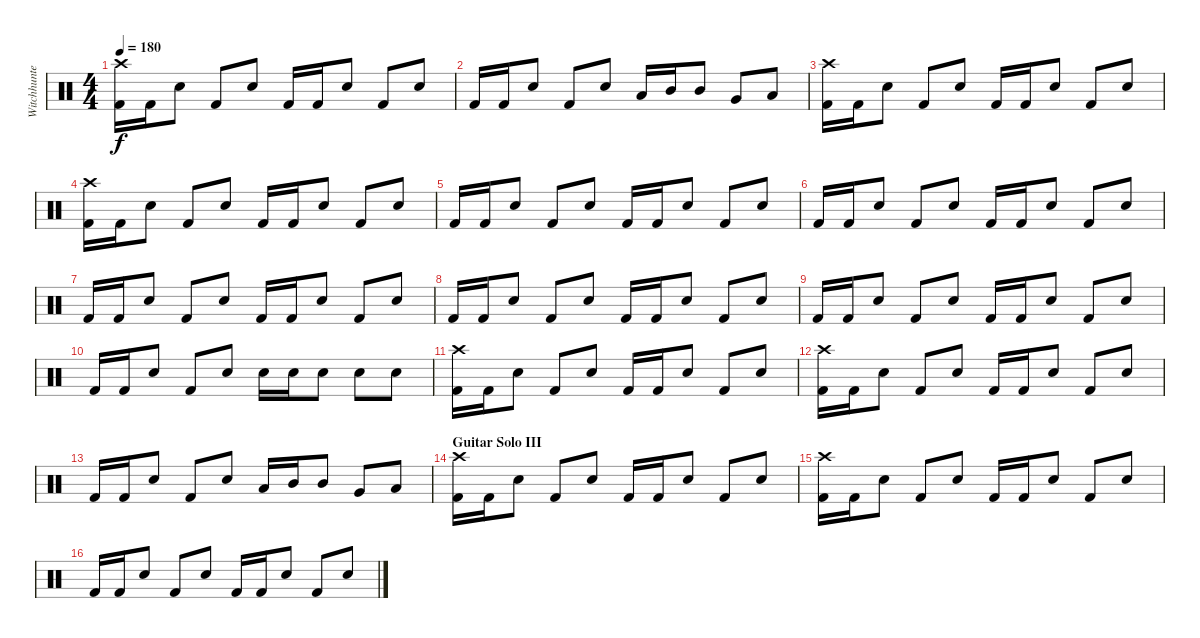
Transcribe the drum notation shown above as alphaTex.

\track ("Witchhunter (Drums)" "Witchhunte") {instrument percussion}
\staff {score}
\articulation defaults
\ts (4 4)
\tempo 180
\clef neutral
\ks c
("Crash high (hit)" "Kick (hit) 2").16{dy f} "Kick (hit) 2".16 "Snare (hit) 2".8 "Kick (hit) 2".8 "Snare (hit) 2".8 "Kick (hit) 2".16 "Kick (hit) 2".16 "Snare (hit) 2".8 "Kick (hit) 2".8 "Snare (hit) 2".8 |
"Kick (hit) 2".16 "Kick (hit) 2".16 "Snare (hit) 2".8 "Kick (hit) 2".8 "Snare (hit) 2".8 "Low Tom (hit)".16 "Mid Tom (hit)".16 "Mid Tom (hit)".8 "Very Low Tom (hit)".8 "Low Tom (hit)".8 |
("Crash high (hit)" "Kick (hit) 2").16 "Kick (hit) 2".16 "Snare (hit) 2".8 "Kick (hit) 2".8 "Snare (hit) 2".8 "Kick (hit) 2".16 "Kick (hit) 2".16 "Snare (hit) 2".8 "Kick (hit) 2".8 "Snare (hit) 2".8 |
("Crash high (hit)" "Kick (hit) 2").16 "Kick (hit) 2".16 "Snare (hit) 2".8 "Kick (hit) 2".8 "Snare (hit) 2".8 "Kick (hit) 2".16 "Kick (hit) 2".16 "Snare (hit) 2".8 "Kick (hit) 2".8 "Snare (hit) 2".8 |
"Kick (hit) 2".16 "Kick (hit) 2".16 "Snare (hit) 2".8 "Kick (hit) 2".8 "Snare (hit) 2".8 "Kick (hit) 2".16 "Kick (hit) 2".16 "Snare (hit) 2".8 "Kick (hit) 2".8 "Snare (hit) 2".8 |
"Kick (hit) 2".16 "Kick (hit) 2".16 "Snare (hit) 2".8 "Kick (hit) 2".8 "Snare (hit) 2".8 "Kick (hit) 2".16 "Kick (hit) 2".16 "Snare (hit) 2".8 "Kick (hit) 2".8 "Snare (hit) 2".8 |
"Kick (hit) 2".16 "Kick (hit) 2".16 "Snare (hit) 2".8 "Kick (hit) 2".8 "Snare (hit) 2".8 "Kick (hit) 2".16 "Kick (hit) 2".16 "Snare (hit) 2".8 "Kick (hit) 2".8 "Snare (hit) 2".8 |
"Kick (hit) 2".16 "Kick (hit) 2".16 "Snare (hit) 2".8 "Kick (hit) 2".8 "Snare (hit) 2".8 "Kick (hit) 2".16 "Kick (hit) 2".16 "Snare (hit) 2".8 "Kick (hit) 2".8 "Snare (hit) 2".8 |
"Kick (hit) 2".16 "Kick (hit) 2".16 "Snare (hit) 2".8 "Kick (hit) 2".8 "Snare (hit) 2".8 "Kick (hit) 2".16 "Kick (hit) 2".16 "Snare (hit) 2".8 "Kick (hit) 2".8 "Snare (hit) 2".8 |
"Kick (hit) 2".16 "Kick (hit) 2".16 "Snare (hit) 2".8 "Kick (hit) 2".8 "Snare (hit) 2".8 "Snare (hit) 2".16 "Snare (hit) 2".16 "Snare (hit) 2".8 "Snare (hit) 2".8 "Snare (hit) 2".8 |
("Crash high (hit)" "Kick (hit) 2").16 "Kick (hit) 2".16 "Snare (hit) 2".8 "Kick (hit) 2".8 "Snare (hit) 2".8 "Kick (hit) 2".16 "Kick (hit) 2".16 "Snare (hit) 2".8 "Kick (hit) 2".8 "Snare (hit) 2".8 |
("Crash high (hit)" "Kick (hit) 2").16 "Kick (hit) 2".16 "Snare (hit) 2".8 "Kick (hit) 2".8 "Snare (hit) 2".8 "Kick (hit) 2".16 "Kick (hit) 2".16 "Snare (hit) 2".8 "Kick (hit) 2".8 "Snare (hit) 2".8 |
"Kick (hit) 2".16 "Kick (hit) 2".16 "Snare (hit) 2".8 "Kick (hit) 2".8 "Snare (hit) 2".8 "Low Tom (hit)".16 "Mid Tom (hit)".16 "Mid Tom (hit)".8 "Very Low Tom (hit)".8 "Low Tom (hit)".8 |
\section ("" "Guitar Solo III")
("Crash high (hit)" "Kick (hit) 2").16 "Kick (hit) 2".16 "Snare (hit) 2".8 "Kick (hit) 2".8 "Snare (hit) 2".8 "Kick (hit) 2".16 "Kick (hit) 2".16 "Snare (hit) 2".8 "Kick (hit) 2".8 "Snare (hit) 2".8 |
("Crash high (hit)" "Kick (hit) 2").16 "Kick (hit) 2".16 "Snare (hit) 2".8 "Kick (hit) 2".8 "Snare (hit) 2".8 "Kick (hit) 2".16 "Kick (hit) 2".16 "Snare (hit) 2".8 "Kick (hit) 2".8 "Snare (hit) 2".8 |
"Kick (hit) 2".16 "Kick (hit) 2".16 "Snare (hit) 2".8 "Kick (hit) 2".8 "Snare (hit) 2".8 "Kick (hit) 2".16 "Kick (hit) 2".16 "Snare (hit) 2".8 "Kick (hit) 2".8 "Snare (hit) 2".8
